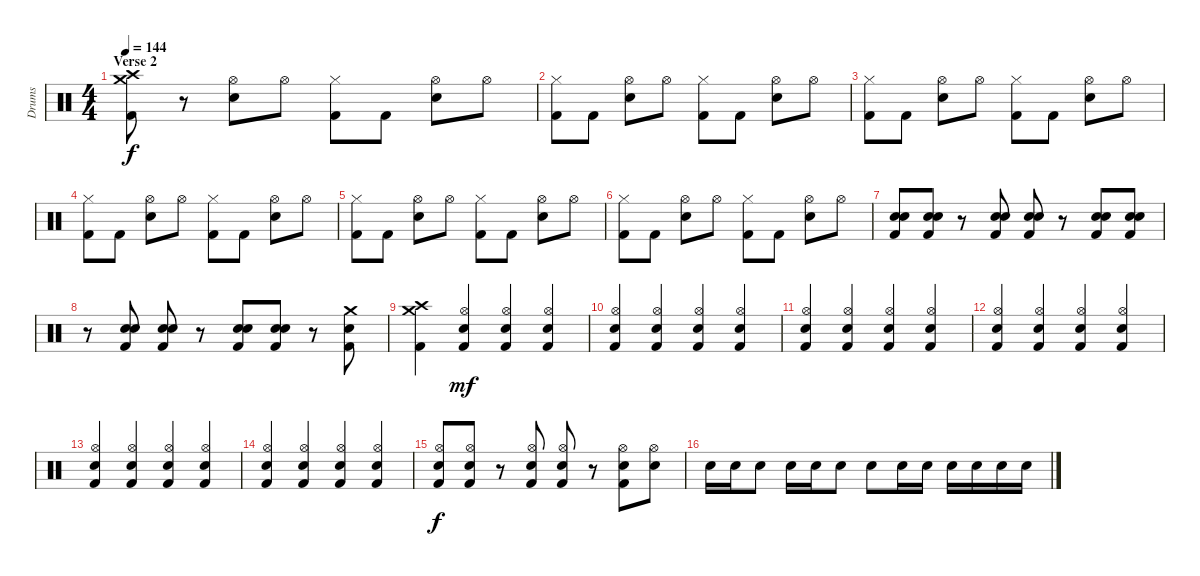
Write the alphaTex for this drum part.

\track ("Drums" "Drums") {instrument percussion}
\staff {score}
\articulation defaults
\ts (4 4)
\section ("" "Verse 2")
\tempo 144
\clef neutral
\ks c
("Crash medium (hit)" "Crash high (hit)" "Kick (hit) 2").8{dy f} r.8 ("Hi-Hat (open)" "Electric Snare (hit)").8 "Hi-Hat (open)".8 ("Hi-Hat (closed)" "Kick (hit) 2").8 "Kick (hit) 2".8 ("Hi-Hat (open)" "Electric Snare (hit)").8 "Hi-Hat (open)".8 |
("Hi-Hat (closed)" "Kick (hit) 2").8 "Kick (hit) 2".8 ("Hi-Hat (open)" "Electric Snare (hit)").8 "Hi-Hat (open)".8 ("Hi-Hat (closed)" "Kick (hit) 2").8 "Kick (hit) 2".8 ("Hi-Hat (open)" "Electric Snare (hit)").8 "Hi-Hat (open)".8 |
("Hi-Hat (closed)" "Kick (hit) 2").8 "Kick (hit) 2".8 ("Hi-Hat (open)" "Electric Snare (hit)").8 "Hi-Hat (open)".8 ("Hi-Hat (closed)" "Kick (hit) 2").8 "Kick (hit) 2".8 ("Hi-Hat (open)" "Electric Snare (hit)").8 "Hi-Hat (open)".8 |
("Hi-Hat (closed)" "Kick (hit) 2").8 "Kick (hit) 2".8 ("Hi-Hat (open)" "Electric Snare (hit)").8 "Hi-Hat (open)".8 ("Hi-Hat (closed)" "Kick (hit) 2").8 "Kick (hit) 2".8 ("Hi-Hat (open)" "Electric Snare (hit)").8 "Hi-Hat (open)".8 |
("Hi-Hat (closed)" "Kick (hit) 2").8 "Kick (hit) 2".8 ("Hi-Hat (open)" "Electric Snare (hit)").8 "Hi-Hat (open)".8 ("Hi-Hat (closed)" "Kick (hit) 2").8 "Kick (hit) 2".8 ("Hi-Hat (open)" "Electric Snare (hit)").8 "Hi-Hat (open)".8 |
("Hi-Hat (closed)" "Kick (hit) 2").8 "Kick (hit) 2".8 ("Hi-Hat (open)" "Electric Snare (hit)").8 "Hi-Hat (open)".8 ("Hi-Hat (closed)" "Kick (hit) 2").8 "Kick (hit) 2".8 ("Hi-Hat (open)" "Electric Snare (hit)").8 "Hi-Hat (open)".8 |
("Electric Snare (hit)" "Electric Snare (hit)" "Kick (hit) 2").8{bu 120} ("Electric Snare (hit)" "Electric Snare (hit)" "Kick (hit) 2").8{bu 120} r.8 ("Electric Snare (hit)" "Electric Snare (hit)" "Kick (hit) 2").8{bu 120} ("Electric Snare (hit)" "Electric Snare (hit)" "Kick (hit) 2").8{bu 120} r.8 ("Electric Snare (hit)" "Electric Snare (hit)" "Kick (hit) 2").8{bu 120} ("Electric Snare (hit)" "Electric Snare (hit)" "Kick (hit) 2").8{bu 120} |
r.8 ("Electric Snare (hit)" "Electric Snare (hit)" "Kick (hit) 2").8{bu 120} ("Electric Snare (hit)" "Electric Snare (hit)" "Kick (hit) 2").8{bu 120} r.8 ("Electric Snare (hit)" "Electric Snare (hit)" "Kick (hit) 2").8{bu 120} ("Electric Snare (hit)" "Electric Snare (hit)" "Kick (hit) 2").8{bu 120} r.8 ("Crash medium (hit)" "Electric Snare (hit)" "Kick (hit) 2").8 |
("Crash medium (hit)" "Crash high (hit)" "Kick (hit) 2").4 ("Hi-Hat (open)" "Electric Snare (hit)" "Kick (hit) 2").4{dy mf} ("Hi-Hat (open)" "Electric Snare (hit)" "Kick (hit) 2").4 ("Hi-Hat (open)" "Electric Snare (hit)" "Kick (hit) 2").4 |
("Hi-Hat (open)" "Electric Snare (hit)" "Kick (hit) 2").4 ("Hi-Hat (open)" "Electric Snare (hit)" "Kick (hit) 2").4 ("Hi-Hat (open)" "Electric Snare (hit)" "Kick (hit) 2").4 ("Hi-Hat (open)" "Electric Snare (hit)" "Kick (hit) 2").4 |
("Hi-Hat (open)" "Electric Snare (hit)" "Kick (hit) 2").4 ("Hi-Hat (open)" "Electric Snare (hit)" "Kick (hit) 2").4 ("Hi-Hat (open)" "Electric Snare (hit)" "Kick (hit) 2").4 ("Hi-Hat (open)" "Electric Snare (hit)" "Kick (hit) 2").4 |
("Hi-Hat (open)" "Electric Snare (hit)" "Kick (hit) 2").4 ("Hi-Hat (open)" "Electric Snare (hit)" "Kick (hit) 2").4 ("Hi-Hat (open)" "Electric Snare (hit)" "Kick (hit) 2").4 ("Hi-Hat (open)" "Electric Snare (hit)" "Kick (hit) 2").4 |
("Hi-Hat (open)" "Electric Snare (hit)" "Kick (hit) 2").4 ("Hi-Hat (open)" "Electric Snare (hit)" "Kick (hit) 2").4 ("Hi-Hat (open)" "Electric Snare (hit)" "Kick (hit) 2").4 ("Hi-Hat (open)" "Electric Snare (hit)" "Kick (hit) 2").4 |
("Hi-Hat (open)" "Electric Snare (hit)" "Kick (hit) 2").4 ("Hi-Hat (open)" "Electric Snare (hit)" "Kick (hit) 2").4 ("Hi-Hat (open)" "Electric Snare (hit)" "Kick (hit) 2").4 ("Hi-Hat (open)" "Electric Snare (hit)" "Kick (hit) 2").4 |
("Hi-Hat (open)" "Electric Snare (hit)" "Kick (hit) 2").8{dy f} ("Hi-Hat (open)" "Electric Snare (hit)" "Kick (hit) 2").8 r.8 ("Hi-Hat (open)" "Electric Snare (hit)" "Kick (hit) 2").8 ("Hi-Hat (open)" "Electric Snare (hit)" "Kick (hit) 2").8 r.8 ("Hi-Hat (open)" "Electric Snare (hit)" "Kick (hit) 2").8 ("Hi-Hat (open)" "Electric Snare (hit)").8 |
"Electric Snare (hit)".16 "Electric Snare (hit)".16 "Electric Snare (hit)".8 "Electric Snare (hit)".16 "Electric Snare (hit)".16 "Electric Snare (hit)".8 "Electric Snare (hit)".8 "Electric Snare (hit)".16 "Electric Snare (hit)".16 "Electric Snare (hit)".16 "Electric Snare (hit)".16 "Electric Snare (hit)".16 "Electric Snare (hit)".16
